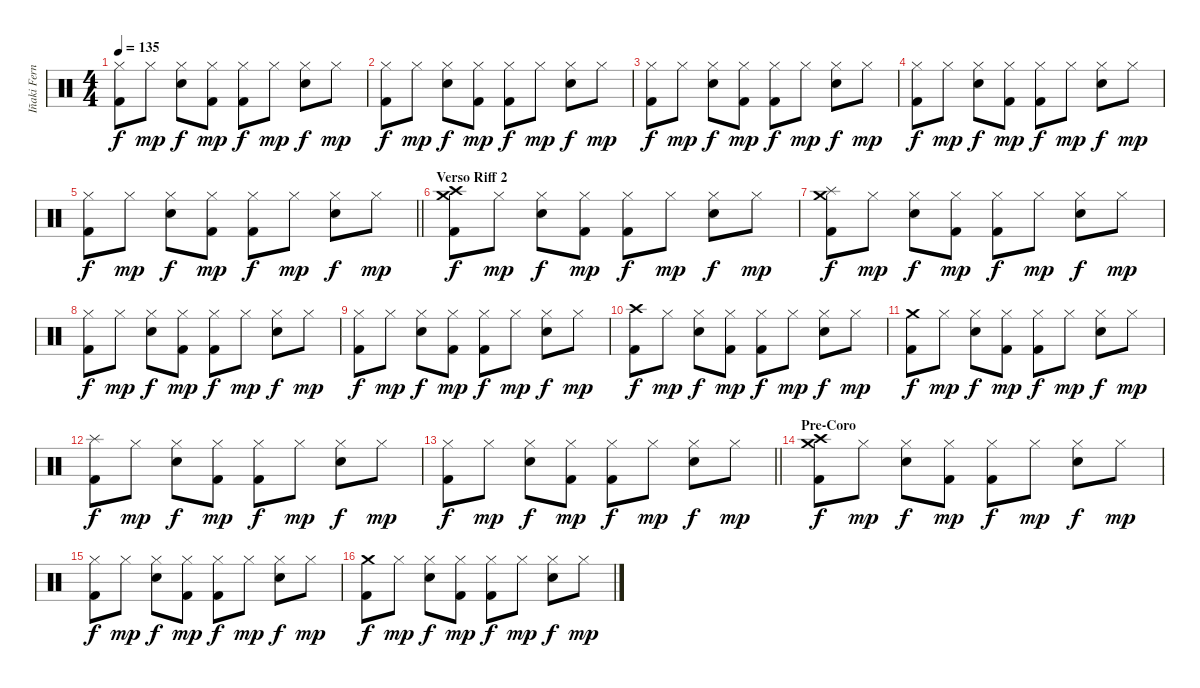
\track ("Iñaki Fernández" "Iñaki Fern") {instrument percussion}
\staff {score}
\articulation defaults
\ts (4 4)
\tempo 135
\clef neutral
\ks c
("Hi-Hat (closed)" "Kick (hit) 2").8{dy f} "Hi-Hat (closed)".8{dy mp} ("Hi-Hat (closed)" "Snare (hit) 2").8{dy f} ("Hi-Hat (closed)" "Kick (hit) 2").8{dy mp} ("Hi-Hat (closed)" "Kick (hit) 2").8{dy f} "Hi-Hat (closed)".8{dy mp} ("Hi-Hat (closed)" "Snare (hit) 2").8{dy f} "Hi-Hat (closed)".8{dy mp} |
("Hi-Hat (closed)" "Kick (hit) 2").8{dy f} "Hi-Hat (closed)".8{dy mp} ("Hi-Hat (closed)" "Snare (hit) 2").8{dy f} ("Hi-Hat (closed)" "Kick (hit) 2").8{dy mp} ("Hi-Hat (closed)" "Kick (hit) 2").8{dy f} "Hi-Hat (closed)".8{dy mp} ("Hi-Hat (closed)" "Snare (hit) 2").8{dy f} "Hi-Hat (closed)".8{dy mp} |
("Hi-Hat (closed)" "Kick (hit) 2").8{dy f} "Hi-Hat (closed)".8{dy mp} ("Hi-Hat (closed)" "Snare (hit) 2").8{dy f} ("Hi-Hat (closed)" "Kick (hit) 2").8{dy mp} ("Hi-Hat (closed)" "Kick (hit) 2").8{dy f} "Hi-Hat (closed)".8{dy mp} ("Hi-Hat (closed)" "Snare (hit) 2").8{dy f} "Hi-Hat (closed)".8{dy mp} |
("Hi-Hat (closed)" "Kick (hit) 2").8{dy f} "Hi-Hat (closed)".8{dy mp} ("Hi-Hat (closed)" "Snare (hit) 2").8{dy f} ("Hi-Hat (closed)" "Kick (hit) 2").8{dy mp} ("Hi-Hat (closed)" "Kick (hit) 2").8{dy f} "Hi-Hat (closed)".8{dy mp} ("Hi-Hat (closed)" "Snare (hit) 2").8{dy f} "Hi-Hat (closed)".8{dy mp} |
\barLineRight lightlight
("Hi-Hat (closed)" "Kick (hit) 2").8{dy f} "Hi-Hat (closed)".8{dy mp} ("Hi-Hat (closed)" "Snare (hit) 2").8{dy f} ("Hi-Hat (closed)" "Kick (hit) 2").8{dy mp} ("Hi-Hat (closed)" "Kick (hit) 2").8{dy f} "Hi-Hat (closed)".8{dy mp} ("Hi-Hat (closed)" "Snare (hit) 2").8{dy f} "Hi-Hat (closed)".8{dy mp} |
\section ("" "Verso Riff 2")
("Crash medium (hit)" "Crash high (hit)" "Kick (hit) 2").8{dy f} "Hi-Hat (closed)".8{dy mp} ("Hi-Hat (closed)" "Snare (hit) 2").8{dy f} ("Hi-Hat (closed)" "Kick (hit) 2").8{dy mp} ("Hi-Hat (closed)" "Kick (hit) 2").8{dy f} "Hi-Hat (closed)".8{dy mp} ("Hi-Hat (closed)" "Snare (hit) 2").8{dy f} "Hi-Hat (closed)".8{dy mp} |
("Splash (hit)" "Crash medium (hit)" "Kick (hit) 2").8{dy f} "Hi-Hat (closed)".8{dy mp} ("Hi-Hat (closed)" "Snare (hit) 2").8{dy f} ("Hi-Hat (closed)" "Kick (hit) 2").8{dy mp} ("Hi-Hat (closed)" "Kick (hit) 2").8{dy f} "Hi-Hat (closed)".8{dy mp} ("Hi-Hat (closed)" "Snare (hit) 2").8{dy f} "Hi-Hat (closed)".8{dy mp} |
("Hi-Hat (closed)" "Kick (hit) 2").8{dy f} "Hi-Hat (closed)".8{dy mp} ("Hi-Hat (closed)" "Snare (hit) 2").8{dy f} ("Hi-Hat (closed)" "Kick (hit) 2").8{dy mp} ("Hi-Hat (closed)" "Kick (hit) 2").8{dy f} "Hi-Hat (closed)".8{dy mp} ("Hi-Hat (closed)" "Snare (hit) 2").8{dy f} "Hi-Hat (closed)".8{dy mp} |
("Hi-Hat (closed)" "Kick (hit) 2").8{dy f} "Hi-Hat (closed)".8{dy mp} ("Hi-Hat (closed)" "Snare (hit) 2").8{dy f} ("Hi-Hat (closed)" "Kick (hit) 2").8{dy mp} ("Hi-Hat (closed)" "Kick (hit) 2").8{dy f} "Hi-Hat (closed)".8{dy mp} ("Hi-Hat (closed)" "Snare (hit) 2").8{dy f} "Hi-Hat (closed)".8{dy mp} |
("Crash high (hit)" "Kick (hit) 2").8{dy f} "Hi-Hat (closed)".8{dy mp} ("Hi-Hat (closed)" "Snare (hit) 2").8{dy f} ("Hi-Hat (closed)" "Kick (hit) 2").8{dy mp} ("Hi-Hat (closed)" "Kick (hit) 2").8{dy f} "Hi-Hat (closed)".8{dy mp} ("Hi-Hat (closed)" "Snare (hit) 2").8{dy f} "Hi-Hat (closed)".8{dy mp} |
("Crash medium (hit)" "Kick (hit) 2").8{dy f} "Hi-Hat (closed)".8{dy mp} ("Hi-Hat (closed)" "Snare (hit) 2").8{dy f} ("Hi-Hat (closed)" "Kick (hit) 2").8{dy mp} ("Hi-Hat (closed)" "Kick (hit) 2").8{dy f} "Hi-Hat (closed)".8{dy mp} ("Hi-Hat (closed)" "Snare (hit) 2").8{dy f} "Hi-Hat (closed)".8{dy mp} |
("Splash (hit)" "Kick (hit) 2").8{dy f} "Hi-Hat (closed)".8{dy mp} ("Hi-Hat (closed)" "Snare (hit) 2").8{dy f} ("Hi-Hat (closed)" "Kick (hit) 2").8{dy mp} ("Hi-Hat (closed)" "Kick (hit) 2").8{dy f} "Hi-Hat (closed)".8{dy mp} ("Hi-Hat (closed)" "Snare (hit) 2").8{dy f} "Hi-Hat (closed)".8{dy mp} |
\barLineRight lightlight
("Hi-Hat (closed)" "Kick (hit) 2").8{dy f} "Hi-Hat (closed)".8{dy mp} ("Hi-Hat (closed)" "Snare (hit) 2").8{dy f} ("Hi-Hat (closed)" "Kick (hit) 2").8{dy mp} ("Hi-Hat (closed)" "Kick (hit) 2").8{dy f} "Hi-Hat (closed)".8{dy mp} ("Hi-Hat (closed)" "Snare (hit) 2").8{dy f} "Hi-Hat (closed)".8{dy mp} |
\section ("" "Pre-Coro")
("Crash medium (hit)" "Crash high (hit)" "Kick (hit) 2").8{dy f} "Hi-Hat (closed)".8{dy mp} ("Hi-Hat (closed)" "Snare (hit) 2").8{dy f} ("Hi-Hat (closed)" "Kick (hit) 2").8{dy mp} ("Hi-Hat (closed)" "Kick (hit) 2").8{dy f} "Hi-Hat (closed)".8{dy mp} ("Hi-Hat (closed)" "Snare (hit) 2").8{dy f} "Hi-Hat (closed)".8{dy mp} |
("Hi-Hat (closed)" "Kick (hit) 2").8{dy f} "Hi-Hat (closed)".8{dy mp} ("Hi-Hat (closed)" "Snare (hit) 2").8{dy f} ("Hi-Hat (closed)" "Kick (hit) 2").8{dy mp} ("Hi-Hat (closed)" "Kick (hit) 2").8{dy f} "Hi-Hat (closed)".8{dy mp} ("Hi-Hat (closed)" "Snare (hit) 2").8{dy f} "Hi-Hat (closed)".8{dy mp} |
("Crash medium (hit)" "Kick (hit) 2").8{dy f} "Hi-Hat (closed)".8{dy mp} ("Hi-Hat (closed)" "Snare (hit) 2").8{dy f} ("Hi-Hat (closed)" "Kick (hit) 2").8{dy mp} ("Hi-Hat (closed)" "Kick (hit) 2").8{dy f} "Hi-Hat (closed)".8{dy mp} ("Hi-Hat (closed)" "Snare (hit) 2").8{dy f} "Hi-Hat (closed)".8{dy mp}
